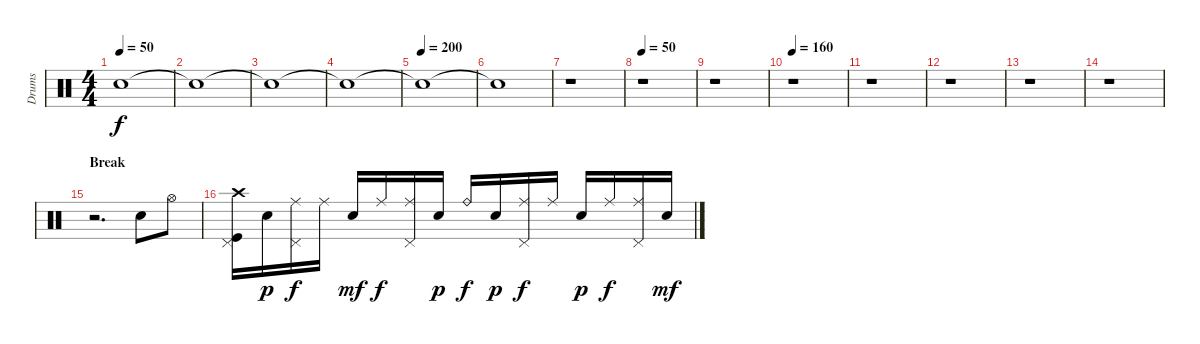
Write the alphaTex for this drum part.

\track ("Drums" "Drums") {instrument percussion}
\staff {score}
\articulation defaults
\ts (4 4)
\tempo 50
\clef neutral
\ks c "Snare (hit)"{t}.1{dy f}
|
"Snare (hit)"{t}.1 |
"Snare (hit)"{t}.1 |
"Snare (hit)"{t}.1 |
\tempo (200)
"Snare (hit)"{t}.1{volume 0} |
"Snare (hit)"{t}.1 |
r.1 |
\tempo 50
r.1 |
r.1 |
\tempo 160
r.1 |
r.1 |
r.1 |
r.1 |
r.1 |
\section ("" "Break")
r.2{d volume 15} "Electric Snare (hit)".8 "Hi-Hat (open)".8 |
("Crash high (hit)" "Pedal Hi-Hat (hit)" "Kick (hit)").16 "Electric Snare (hit)".16{dy p} ("Ride (middle)" "Pedal Hi-Hat (hit)").16{dy f} "Ride (middle)".16 "Electric Snare (hit)".16{dy mf} "Ride (middle)".16{dy f} ("Ride (middle)" "Pedal Hi-Hat (hit)").16 "Electric Snare (hit)".16{dy p} "Ride (bell)".16{dy f} "Electric Snare (hit)".16{dy p} ("Ride (middle)" "Pedal Hi-Hat (hit)").16{dy f} "Ride (middle)".16 "Electric Snare (hit)".16{dy p} "Ride (middle)".16{dy f} ("Ride (middle)" "Pedal Hi-Hat (hit)").16 "Electric Snare (hit)".16{dy mf}
